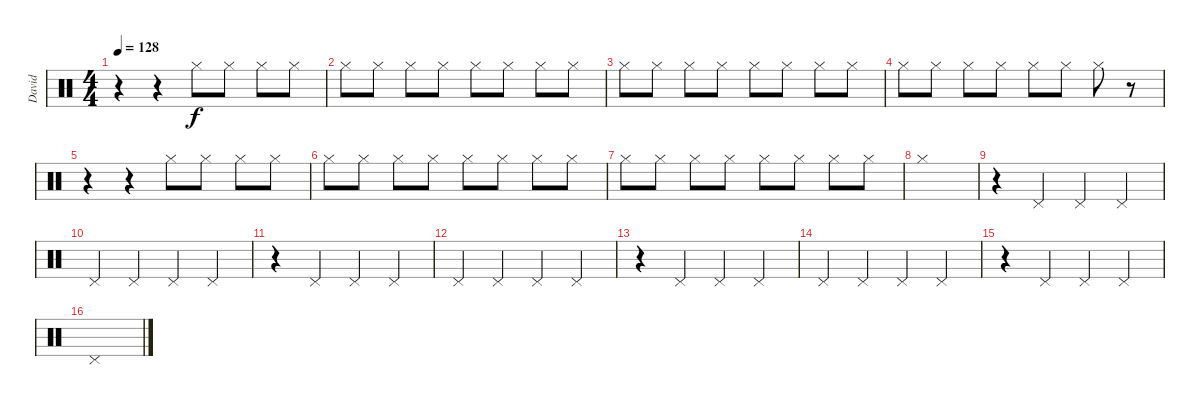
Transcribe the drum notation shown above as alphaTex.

\track ("David" "David") {instrument percussion}
\staff {score}
\articulation defaults
\ts (4 4)
\tempo 128
\clef neutral
\ks c
r.4{dy f} r.4 "Hi-Hat (closed)".8 "Hi-Hat (closed)".8 "Hi-Hat (closed)".8 "Hi-Hat (closed)".8 |
"Hi-Hat (closed)".8 "Hi-Hat (closed)".8 "Hi-Hat (closed)".8 "Hi-Hat (closed)".8 "Hi-Hat (closed)".8 "Hi-Hat (closed)".8 "Hi-Hat (closed)".8 "Hi-Hat (closed)".8 |
"Hi-Hat (closed)".8 "Hi-Hat (closed)".8 "Hi-Hat (closed)".8 "Hi-Hat (closed)".8 "Hi-Hat (closed)".8 "Hi-Hat (closed)".8 "Hi-Hat (closed)".8 "Hi-Hat (closed)".8 |
"Hi-Hat (closed)".8 "Hi-Hat (closed)".8 "Hi-Hat (closed)".8 "Hi-Hat (closed)".8 "Hi-Hat (closed)".8 "Hi-Hat (closed)".8 "Hi-Hat (closed)".8 r.8 |
r.4 r.4 "Hi-Hat (closed)".8 "Hi-Hat (closed)".8 "Hi-Hat (closed)".8 "Hi-Hat (closed)".8 |
"Hi-Hat (closed)".8 "Hi-Hat (closed)".8 "Hi-Hat (closed)".8 "Hi-Hat (closed)".8 "Hi-Hat (closed)".8 "Hi-Hat (closed)".8 "Hi-Hat (closed)".8 "Hi-Hat (closed)".8 |
"Hi-Hat (closed)".8 "Hi-Hat (closed)".8 "Hi-Hat (closed)".8 "Hi-Hat (closed)".8 "Hi-Hat (closed)".8 "Hi-Hat (closed)".8 "Hi-Hat (closed)".8 "Hi-Hat (closed)".8 |
"Hi-Hat (closed)".1 |
r.4 "Pedal Hi-Hat (hit)".4 "Pedal Hi-Hat (hit)".4 "Pedal Hi-Hat (hit)".4 |
"Pedal Hi-Hat (hit)".4 "Pedal Hi-Hat (hit)".4 "Pedal Hi-Hat (hit)".4 "Pedal Hi-Hat (hit)".4 |
r.4 "Pedal Hi-Hat (hit)".4 "Pedal Hi-Hat (hit)".4 "Pedal Hi-Hat (hit)".4 |
"Pedal Hi-Hat (hit)".4 "Pedal Hi-Hat (hit)".4 "Pedal Hi-Hat (hit)".4 "Pedal Hi-Hat (hit)".4 |
r.4 "Pedal Hi-Hat (hit)".4 "Pedal Hi-Hat (hit)".4 "Pedal Hi-Hat (hit)".4 |
"Pedal Hi-Hat (hit)".4 "Pedal Hi-Hat (hit)".4 "Pedal Hi-Hat (hit)".4 "Pedal Hi-Hat (hit)".4 |
r.4 "Pedal Hi-Hat (hit)".4 "Pedal Hi-Hat (hit)".4 "Pedal Hi-Hat (hit)".4 |
"Pedal Hi-Hat (hit)".1
